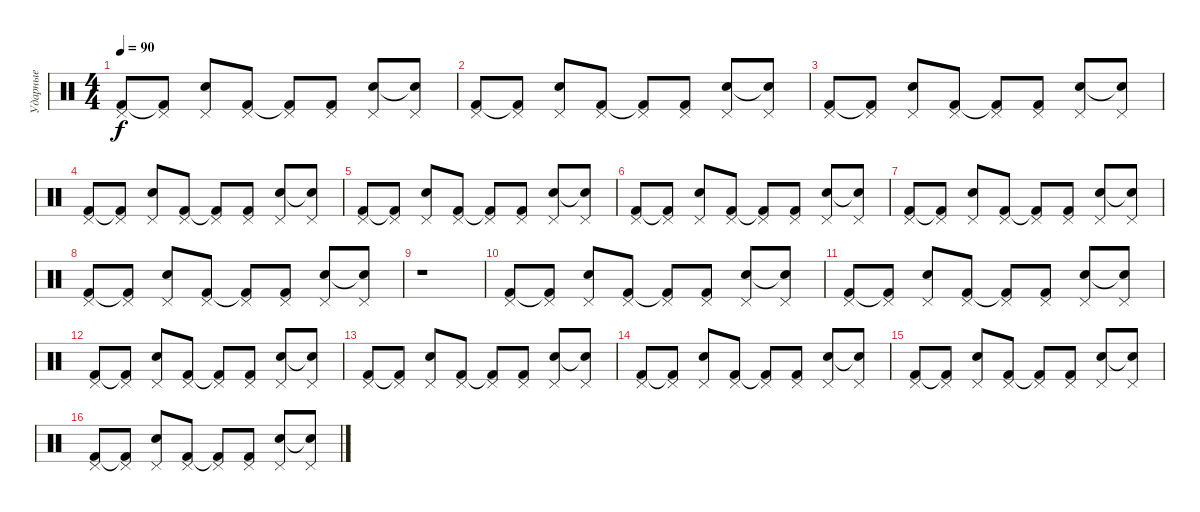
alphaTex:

\track ("Ударные" "Ударные") {instrument percussion}
\staff {score}
\articulation defaults
\ts (4 4)
\tempo 90
\clef neutral
\ks c
("Kick (hit) 2" "Pedal Hi-Hat (hit)").8{dy f} ("Kick (hit) 2"{t} "Pedal Hi-Hat (hit)").8 ("Snare (hit) 2" "Pedal Hi-Hat (hit)").8 ("Kick (hit) 2" "Pedal Hi-Hat (hit)").8 ("Kick (hit) 2"{t} "Pedal Hi-Hat (hit)").8 ("Kick (hit) 2" "Pedal Hi-Hat (hit)").8 ("Snare (hit) 2" "Pedal Hi-Hat (hit)").8 ("Snare (hit) 2"{t} "Pedal Hi-Hat (hit)").8 |
("Kick (hit) 2" "Pedal Hi-Hat (hit)").8 ("Kick (hit) 2"{t} "Pedal Hi-Hat (hit)").8 ("Snare (hit) 2" "Pedal Hi-Hat (hit)").8 ("Kick (hit) 2" "Pedal Hi-Hat (hit)").8 ("Kick (hit) 2"{t} "Pedal Hi-Hat (hit)").8 ("Kick (hit) 2" "Pedal Hi-Hat (hit)").8 ("Snare (hit) 2" "Pedal Hi-Hat (hit)").8 ("Snare (hit) 2"{t} "Pedal Hi-Hat (hit)").8 |
("Kick (hit) 2" "Pedal Hi-Hat (hit)").8 ("Kick (hit) 2"{t} "Pedal Hi-Hat (hit)").8 ("Snare (hit) 2" "Pedal Hi-Hat (hit)").8 ("Kick (hit) 2" "Pedal Hi-Hat (hit)").8 ("Kick (hit) 2"{t} "Pedal Hi-Hat (hit)").8 ("Kick (hit) 2" "Pedal Hi-Hat (hit)").8 ("Snare (hit) 2" "Pedal Hi-Hat (hit)").8 ("Snare (hit) 2"{t} "Pedal Hi-Hat (hit)").8 |
("Kick (hit) 2" "Pedal Hi-Hat (hit)").8 ("Kick (hit) 2"{t} "Pedal Hi-Hat (hit)").8 ("Snare (hit) 2" "Pedal Hi-Hat (hit)").8 ("Kick (hit) 2" "Pedal Hi-Hat (hit)").8 ("Kick (hit) 2"{t} "Pedal Hi-Hat (hit)").8 ("Kick (hit) 2" "Pedal Hi-Hat (hit)").8 ("Snare (hit) 2" "Pedal Hi-Hat (hit)").8 ("Snare (hit) 2"{t} "Pedal Hi-Hat (hit)").8 |
("Kick (hit) 2" "Pedal Hi-Hat (hit)").8 ("Kick (hit) 2"{t} "Pedal Hi-Hat (hit)").8 ("Snare (hit) 2" "Pedal Hi-Hat (hit)").8 ("Kick (hit) 2" "Pedal Hi-Hat (hit)").8 ("Kick (hit) 2"{t} "Pedal Hi-Hat (hit)").8 ("Kick (hit) 2" "Pedal Hi-Hat (hit)").8 ("Snare (hit) 2" "Pedal Hi-Hat (hit)").8 ("Snare (hit) 2"{t} "Pedal Hi-Hat (hit)").8 |
("Kick (hit) 2" "Pedal Hi-Hat (hit)").8 ("Kick (hit) 2"{t} "Pedal Hi-Hat (hit)").8 ("Snare (hit) 2" "Pedal Hi-Hat (hit)").8 ("Kick (hit) 2" "Pedal Hi-Hat (hit)").8 ("Kick (hit) 2"{t} "Pedal Hi-Hat (hit)").8 ("Kick (hit) 2" "Pedal Hi-Hat (hit)").8 ("Snare (hit) 2" "Pedal Hi-Hat (hit)").8 ("Snare (hit) 2"{t} "Pedal Hi-Hat (hit)").8 |
("Kick (hit) 2" "Pedal Hi-Hat (hit)").8 ("Kick (hit) 2"{t} "Pedal Hi-Hat (hit)").8 ("Snare (hit) 2" "Pedal Hi-Hat (hit)").8 ("Kick (hit) 2" "Pedal Hi-Hat (hit)").8 ("Kick (hit) 2"{t} "Pedal Hi-Hat (hit)").8 ("Kick (hit) 2" "Pedal Hi-Hat (hit)").8 ("Snare (hit) 2" "Pedal Hi-Hat (hit)").8 ("Snare (hit) 2"{t} "Pedal Hi-Hat (hit)").8 |
("Kick (hit) 2" "Pedal Hi-Hat (hit)").8 ("Kick (hit) 2"{t} "Pedal Hi-Hat (hit)").8 ("Snare (hit) 2" "Pedal Hi-Hat (hit)").8 ("Kick (hit) 2" "Pedal Hi-Hat (hit)").8 ("Kick (hit) 2"{t} "Pedal Hi-Hat (hit)").8 ("Kick (hit) 2" "Pedal Hi-Hat (hit)").8 ("Snare (hit) 2" "Pedal Hi-Hat (hit)").8 ("Snare (hit) 2"{t} "Pedal Hi-Hat (hit)").8 |
r.1 |
("Kick (hit) 2" "Pedal Hi-Hat (hit)").8 ("Kick (hit) 2"{t} "Pedal Hi-Hat (hit)").8 ("Snare (hit) 2" "Pedal Hi-Hat (hit)").8 ("Kick (hit) 2" "Pedal Hi-Hat (hit)").8 ("Kick (hit) 2"{t} "Pedal Hi-Hat (hit)").8 ("Kick (hit) 2" "Pedal Hi-Hat (hit)").8 ("Snare (hit) 2" "Pedal Hi-Hat (hit)").8 ("Snare (hit) 2"{t} "Pedal Hi-Hat (hit)").8 |
("Kick (hit) 2" "Pedal Hi-Hat (hit)").8 ("Kick (hit) 2"{t} "Pedal Hi-Hat (hit)").8 ("Snare (hit) 2" "Pedal Hi-Hat (hit)").8 ("Kick (hit) 2" "Pedal Hi-Hat (hit)").8 ("Kick (hit) 2"{t} "Pedal Hi-Hat (hit)").8 ("Kick (hit) 2" "Pedal Hi-Hat (hit)").8 ("Snare (hit) 2" "Pedal Hi-Hat (hit)").8 ("Snare (hit) 2"{t} "Pedal Hi-Hat (hit)").8 |
("Kick (hit) 2" "Pedal Hi-Hat (hit)").8 ("Kick (hit) 2"{t} "Pedal Hi-Hat (hit)").8 ("Snare (hit) 2" "Pedal Hi-Hat (hit)").8 ("Kick (hit) 2" "Pedal Hi-Hat (hit)").8 ("Kick (hit) 2"{t} "Pedal Hi-Hat (hit)").8 ("Kick (hit) 2" "Pedal Hi-Hat (hit)").8 ("Snare (hit) 2" "Pedal Hi-Hat (hit)").8 ("Snare (hit) 2"{t} "Pedal Hi-Hat (hit)").8 |
("Kick (hit) 2" "Pedal Hi-Hat (hit)").8 ("Kick (hit) 2"{t} "Pedal Hi-Hat (hit)").8 ("Snare (hit) 2" "Pedal Hi-Hat (hit)").8 ("Kick (hit) 2" "Pedal Hi-Hat (hit)").8 ("Kick (hit) 2"{t} "Pedal Hi-Hat (hit)").8 ("Kick (hit) 2" "Pedal Hi-Hat (hit)").8 ("Snare (hit) 2" "Pedal Hi-Hat (hit)").8 ("Snare (hit) 2"{t} "Pedal Hi-Hat (hit)").8 |
("Kick (hit) 2" "Pedal Hi-Hat (hit)").8 ("Kick (hit) 2"{t} "Pedal Hi-Hat (hit)").8 ("Snare (hit) 2" "Pedal Hi-Hat (hit)").8 ("Kick (hit) 2" "Pedal Hi-Hat (hit)").8 ("Kick (hit) 2"{t} "Pedal Hi-Hat (hit)").8 ("Kick (hit) 2" "Pedal Hi-Hat (hit)").8 ("Snare (hit) 2" "Pedal Hi-Hat (hit)").8 ("Snare (hit) 2"{t} "Pedal Hi-Hat (hit)").8 |
("Kick (hit) 2" "Pedal Hi-Hat (hit)").8 ("Kick (hit) 2"{t} "Pedal Hi-Hat (hit)").8 ("Snare (hit) 2" "Pedal Hi-Hat (hit)").8 ("Kick (hit) 2" "Pedal Hi-Hat (hit)").8 ("Kick (hit) 2"{t} "Pedal Hi-Hat (hit)").8 ("Kick (hit) 2" "Pedal Hi-Hat (hit)").8 ("Snare (hit) 2" "Pedal Hi-Hat (hit)").8 ("Snare (hit) 2"{t} "Pedal Hi-Hat (hit)").8 |
("Kick (hit) 2" "Pedal Hi-Hat (hit)").8 ("Kick (hit) 2"{t} "Pedal Hi-Hat (hit)").8 ("Snare (hit) 2" "Pedal Hi-Hat (hit)").8 ("Kick (hit) 2" "Pedal Hi-Hat (hit)").8 ("Kick (hit) 2"{t} "Pedal Hi-Hat (hit)").8 ("Kick (hit) 2" "Pedal Hi-Hat (hit)").8 ("Snare (hit) 2" "Pedal Hi-Hat (hit)").8 ("Snare (hit) 2"{t} "Pedal Hi-Hat (hit)").8
